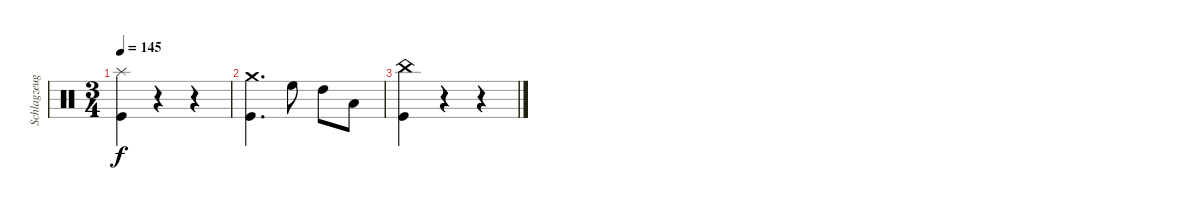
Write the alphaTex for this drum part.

\track ("Schlagzeug" "Schlagzeug") {instrument percussion}
\staff {score}
\articulation defaults
\ts (3 4)
\tempo 145
\clef neutral
\ks c
("Splash (hit)" "Kick (hit)").4{dy f} r.4 r.4 |
("Crash medium (hit)" "Kick (hit)").4{d} "High Floor Tom (hit)".8 "High Tom (hit)".8 "Low Tom (hit)".8 |
("China (hit)" "Kick (hit)").4 r.4 r.4
